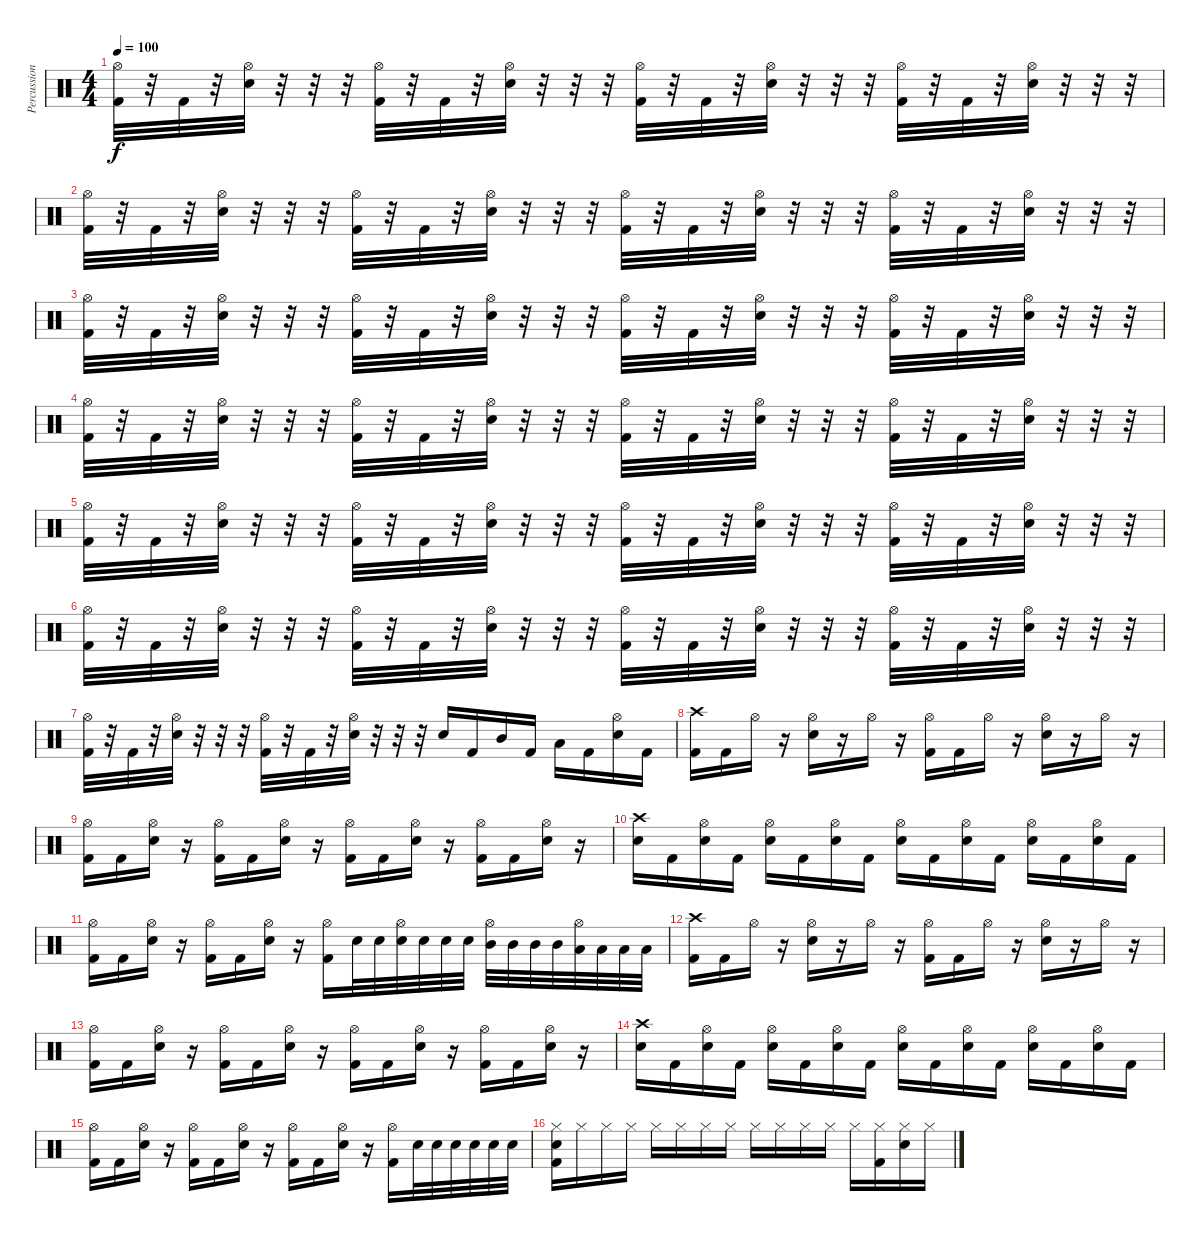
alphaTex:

\track ("Percussion" "Percussion") {instrument percussion}
\staff {score}
\articulation defaults
\ts (4 4)
\tempo 100
\clef neutral
\ks c
("Hi-Hat (open)" "Kick (hit) 2").32{dy f} r.32 "Kick (hit) 2".32 r.32 ("Hi-Hat (open)" "Snare (hit) 2").32 r.32 r.32 r.32 ("Hi-Hat (open)" "Kick (hit) 2").32 r.32 "Kick (hit) 2".32 r.32 ("Hi-Hat (open)" "Snare (hit) 2").32 r.32 r.32 r.32 ("Hi-Hat (open)" "Kick (hit) 2").32 r.32 "Kick (hit) 2".32 r.32 ("Hi-Hat (open)" "Snare (hit) 2").32 r.32 r.32 r.32 ("Hi-Hat (open)" "Kick (hit) 2").32 r.32 "Kick (hit) 2".32 r.32 ("Hi-Hat (open)" "Snare (hit) 2").32 r.32 r.32 r.32 |
("Hi-Hat (open)" "Kick (hit) 2").32 r.32 "Kick (hit) 2".32 r.32 ("Hi-Hat (open)" "Snare (hit) 2").32 r.32 r.32 r.32 ("Hi-Hat (open)" "Kick (hit) 2").32 r.32 "Kick (hit) 2".32 r.32 ("Hi-Hat (open)" "Snare (hit) 2").32 r.32 r.32 r.32 ("Hi-Hat (open)" "Kick (hit) 2").32 r.32 "Kick (hit) 2".32 r.32 ("Hi-Hat (open)" "Snare (hit) 2").32 r.32 r.32 r.32 ("Hi-Hat (open)" "Kick (hit) 2").32 r.32 "Kick (hit) 2".32 r.32 ("Hi-Hat (open)" "Snare (hit) 2").32 r.32 r.32 r.32 |
("Hi-Hat (open)" "Kick (hit) 2").32 r.32 "Kick (hit) 2".32 r.32 ("Hi-Hat (open)" "Snare (hit) 2").32 r.32 r.32 r.32 ("Hi-Hat (open)" "Kick (hit) 2").32 r.32 "Kick (hit) 2".32 r.32 ("Hi-Hat (open)" "Snare (hit) 2").32 r.32 r.32 r.32 ("Hi-Hat (open)" "Kick (hit) 2").32 r.32 "Kick (hit) 2".32 r.32 ("Hi-Hat (open)" "Snare (hit) 2").32 r.32 r.32 r.32 ("Hi-Hat (open)" "Kick (hit) 2").32 r.32 "Kick (hit) 2".32 r.32 ("Hi-Hat (open)" "Snare (hit) 2").32 r.32 r.32 r.32 |
("Hi-Hat (open)" "Kick (hit) 2").32 r.32 "Kick (hit) 2".32 r.32 ("Hi-Hat (open)" "Snare (hit) 2").32 r.32 r.32 r.32 ("Hi-Hat (open)" "Kick (hit) 2").32 r.32 "Kick (hit) 2".32 r.32 ("Hi-Hat (open)" "Snare (hit) 2").32 r.32 r.32 r.32 ("Hi-Hat (open)" "Kick (hit) 2").32 r.32 "Kick (hit) 2".32 r.32 ("Hi-Hat (open)" "Snare (hit) 2").32 r.32 r.32 r.32 ("Hi-Hat (open)" "Kick (hit) 2").32 r.32 "Kick (hit) 2".32 r.32 ("Hi-Hat (open)" "Snare (hit) 2").32 r.32 r.32 r.32 |
("Hi-Hat (open)" "Kick (hit) 2").32 r.32 "Kick (hit) 2".32 r.32 ("Hi-Hat (open)" "Snare (hit) 2").32 r.32 r.32 r.32 ("Hi-Hat (open)" "Kick (hit) 2").32 r.32 "Kick (hit) 2".32 r.32 ("Hi-Hat (open)" "Snare (hit) 2").32 r.32 r.32 r.32 ("Hi-Hat (open)" "Kick (hit) 2").32 r.32 "Kick (hit) 2".32 r.32 ("Hi-Hat (open)" "Snare (hit) 2").32 r.32 r.32 r.32 ("Hi-Hat (open)" "Kick (hit) 2").32 r.32 "Kick (hit) 2".32 r.32 ("Hi-Hat (open)" "Snare (hit) 2").32 r.32 r.32 r.32 |
("Hi-Hat (open)" "Kick (hit) 2").32 r.32 "Kick (hit) 2".32 r.32 ("Hi-Hat (open)" "Snare (hit) 2").32 r.32 r.32 r.32 ("Hi-Hat (open)" "Kick (hit) 2").32 r.32 "Kick (hit) 2".32 r.32 ("Hi-Hat (open)" "Snare (hit) 2").32 r.32 r.32 r.32 ("Hi-Hat (open)" "Kick (hit) 2").32 r.32 "Kick (hit) 2".32 r.32 ("Hi-Hat (open)" "Snare (hit) 2").32 r.32 r.32 r.32 ("Hi-Hat (open)" "Kick (hit) 2").32 r.32 "Kick (hit) 2".32 r.32 ("Hi-Hat (open)" "Snare (hit) 2").32 r.32 r.32 r.32 |
("Hi-Hat (open)" "Kick (hit) 2").32 r.32 "Kick (hit) 2".32 r.32 ("Hi-Hat (open)" "Snare (hit) 2").32 r.32 r.32 r.32 ("Hi-Hat (open)" "Kick (hit) 2").32 r.32 "Kick (hit) 2".32 r.32 ("Hi-Hat (open)" "Snare (hit) 2").32 r.32 r.32 r.32 "Snare (hit) 2".16 "Kick (hit) 2".16 "Mid Tom (hit)".16 "Kick (hit) 2".16 "Low Floor Tom (hit)".16 "Kick (hit) 2".16 ("Hi-Hat (open)" "Snare (hit) 2").16 "Kick (hit) 2".16 |
("Crash high (hit)" "Kick (hit) 2").16 "Kick (hit) 2".16 "Hi-Hat (open)".16 r.16 ("Hi-Hat (open)" "Snare (hit) 2").16 r.16 "Hi-Hat (open)".16 r.16 ("Hi-Hat (open)" "Kick (hit) 2").16 "Kick (hit) 2".16 "Hi-Hat (open)".16 r.16 ("Hi-Hat (open)" "Snare (hit) 2").16 r.16 "Hi-Hat (open)".16 r.16 |
("Hi-Hat (open)" "Kick (hit) 2").16 "Kick (hit) 2".16 ("Hi-Hat (open)" "Snare (hit) 2").16 r.16 ("Hi-Hat (open)" "Kick (hit) 2").16 "Kick (hit) 2".16 ("Hi-Hat (open)" "Snare (hit) 2").16 r.16 ("Hi-Hat (open)" "Kick (hit) 2").16 "Kick (hit) 2".16 ("Hi-Hat (open)" "Snare (hit) 2").16 r.16 ("Hi-Hat (open)" "Kick (hit) 2").16 "Kick (hit) 2".16 ("Hi-Hat (open)" "Snare (hit) 2").16 r.16 |
("Crash high (hit)" "Snare (hit) 2").16 "Kick (hit) 2".16 ("Hi-Hat (open)" "Snare (hit) 2").16 "Kick (hit) 2".16 ("Hi-Hat (open)" "Snare (hit) 2").16 "Kick (hit) 2".16 ("Hi-Hat (open)" "Snare (hit) 2").16 "Kick (hit) 2".16 ("Hi-Hat (open)" "Snare (hit) 2").16 "Kick (hit) 2".16 ("Hi-Hat (open)" "Snare (hit) 2").16 "Kick (hit) 2".16 ("Hi-Hat (open)" "Snare (hit) 2").16 "Kick (hit) 2".16 ("Hi-Hat (open)" "Snare (hit) 2").16 "Kick (hit) 2".16 |
("Hi-Hat (open)" "Kick (hit) 2").16 "Kick (hit) 2".16 ("Hi-Hat (open)" "Snare (hit) 2").16 r.16 ("Hi-Hat (open)" "Kick (hit) 2").16 "Kick (hit) 2".16 ("Hi-Hat (open)" "Snare (hit) 2").16 r.16 ("Hi-Hat (open)" "Kick (hit) 2").16 "Snare (hit) 2".32 "Snare (hit) 2".32 ("Hi-Hat (open)" "Snare (hit) 2").32 "Snare (hit) 2".32 "Snare (hit) 2".32 "Snare (hit) 2".32 ("Hi-Hat (open)" "Mid Tom (hit)").32 "Mid Tom (hit)".32 "Mid Tom (hit)".32 "Mid Tom (hit)".32 ("Hi-Hat (open)" "Low Floor Tom (hit)").32 "Low Floor Tom (hit)".32 "Low Floor Tom (hit)".32 "Low Floor Tom (hit)".32 |
("Crash high (hit)" "Kick (hit) 2").16 "Kick (hit) 2".16 "Hi-Hat (open)".16 r.16 ("Hi-Hat (open)" "Snare (hit) 2").16 r.16 "Hi-Hat (open)".16 r.16 ("Hi-Hat (open)" "Kick (hit) 2").16 "Kick (hit) 2".16 "Hi-Hat (open)".16 r.16 ("Hi-Hat (open)" "Snare (hit) 2").16 r.16 "Hi-Hat (open)".16 r.16 |
("Hi-Hat (open)" "Kick (hit) 2").16 "Kick (hit) 2".16 ("Hi-Hat (open)" "Snare (hit) 2").16 r.16 ("Hi-Hat (open)" "Kick (hit) 2").16 "Kick (hit) 2".16 ("Hi-Hat (open)" "Snare (hit) 2").16 r.16 ("Hi-Hat (open)" "Kick (hit) 2").16 "Kick (hit) 2".16 ("Hi-Hat (open)" "Snare (hit) 2").16 r.16 ("Hi-Hat (open)" "Kick (hit) 2").16 "Kick (hit) 2".16 ("Hi-Hat (open)" "Snare (hit) 2").16 r.16 |
("Crash high (hit)" "Snare (hit) 2").16 "Kick (hit) 2".16 ("Hi-Hat (open)" "Snare (hit) 2").16 "Kick (hit) 2".16 ("Hi-Hat (open)" "Snare (hit) 2").16 "Kick (hit) 2".16 ("Hi-Hat (open)" "Snare (hit) 2").16 "Kick (hit) 2".16 ("Hi-Hat (open)" "Snare (hit) 2").16 "Kick (hit) 2".16 ("Hi-Hat (open)" "Snare (hit) 2").16 "Kick (hit) 2".16 ("Hi-Hat (open)" "Snare (hit) 2").16 "Kick (hit) 2".16 ("Hi-Hat (open)" "Snare (hit) 2").16 "Kick (hit) 2".16 |
("Hi-Hat (open)" "Kick (hit) 2").16 "Kick (hit) 2".16 ("Hi-Hat (open)" "Snare (hit) 2").16 r.16 ("Hi-Hat (open)" "Kick (hit) 2").16 "Kick (hit) 2".16 ("Hi-Hat (open)" "Snare (hit) 2").16 r.16 ("Hi-Hat (open)" "Kick (hit) 2").16 "Kick (hit) 2".16 ("Hi-Hat (open)" "Snare (hit) 2").16 r.16 ("Hi-Hat (open)" "Kick (hit) 2").16 "Snare (hit) 2".32 "Snare (hit) 2".32 "Snare (hit) 2".32 "Snare (hit) 2".32 "Snare (hit) 2".32 "Snare (hit) 2".32 |
("Hi-Hat (closed)" "Snare (hit) 2" "Kick (hit) 2").16 "Hi-Hat (closed)".16 "Hi-Hat (closed)".16 "Hi-Hat (closed)".16 "Hi-Hat (closed)".16 "Hi-Hat (closed)".16 "Hi-Hat (closed)".16 "Hi-Hat (closed)".16 "Hi-Hat (closed)".16 "Hi-Hat (closed)".16 "Hi-Hat (closed)".16 "Hi-Hat (closed)".16 "Hi-Hat (closed)".16 ("Hi-Hat (closed)" "Kick (hit) 2").16 ("Hi-Hat (closed)" "Snare (hit) 2").16 "Hi-Hat (closed)".16
